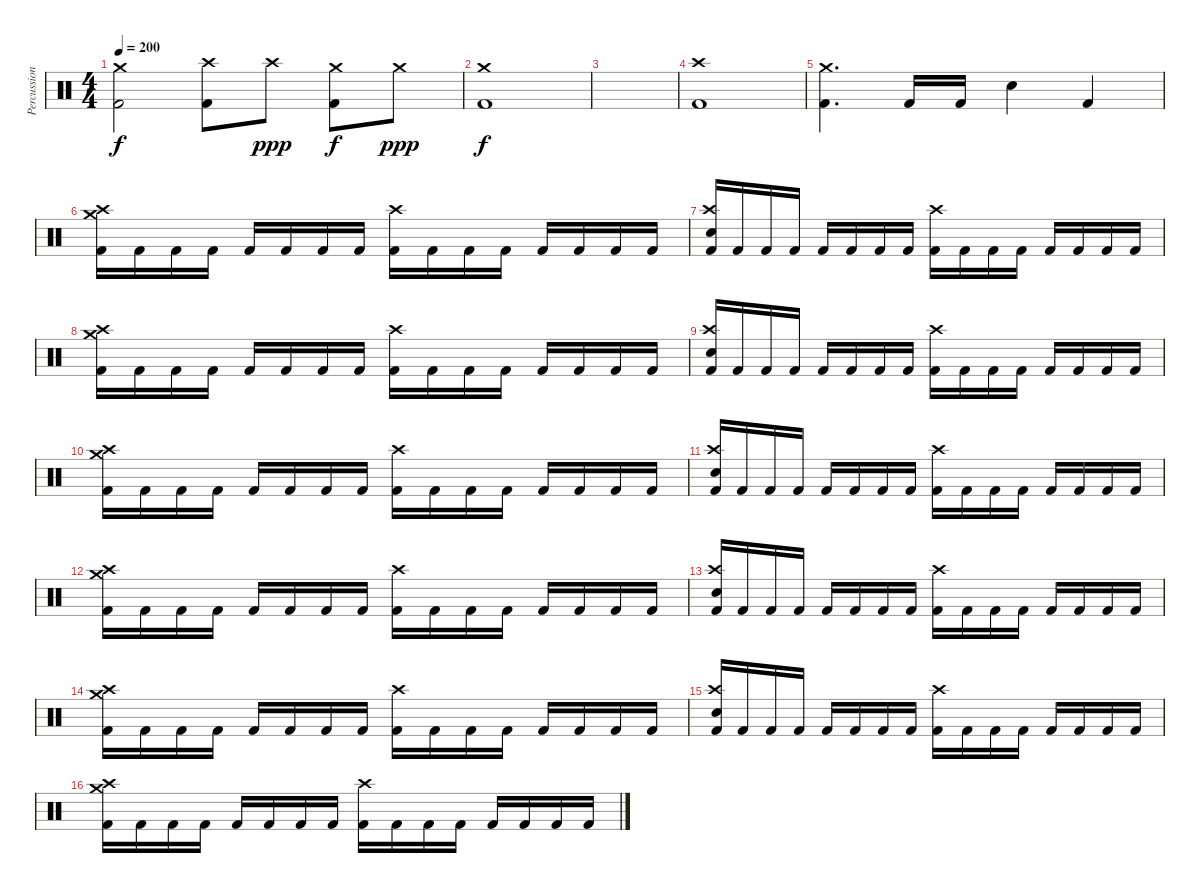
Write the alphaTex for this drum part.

\track ("Percussion" "Percussion") {instrument percussion}
\staff {score}
\articulation defaults
\ts (4 4)
\tempo 200
\clef neutral
\ks c
("Crash medium (hit)" "Kick (hit) 2").2{dy f} ("Crash high (hit)" "Kick (hit) 2").8 "Crash high (hit)".8{dy ppp} ("Crash medium (hit)" "Kick (hit) 2").8{dy f} "Crash medium (hit)".8{dy ppp} |
("Crash medium (hit)" "Kick (hit) 2").1{dy f} |
|
("Crash high (hit)" "Kick (hit) 2").1 |
("Crash medium (hit)" "Kick (hit) 2").4{d} "Kick (hit) 2".16 "Kick (hit) 2".16 "Electric Snare (hit)".4 "Kick (hit) 2".4 |
("Crash medium (hit)" "Crash high (hit)" "Kick (hit) 2").16 "Kick (hit) 2".16 "Kick (hit) 2".16 "Kick (hit) 2".16 "Kick (hit) 2".16 "Kick (hit) 2".16 "Kick (hit) 2".16 "Kick (hit) 2".16 ("Crash high (hit)" "Kick (hit) 2").16 "Kick (hit) 2".16 "Kick (hit) 2".16 "Kick (hit) 2".16 "Kick (hit) 2".16 "Kick (hit) 2".16 "Kick (hit) 2".16 "Kick (hit) 2".16 |
("Crash high (hit)" "Electric Snare (hit)" "Kick (hit) 2").16 "Kick (hit) 2".16 "Kick (hit) 2".16 "Kick (hit) 2".16 "Kick (hit) 2".16 "Kick (hit) 2".16 "Kick (hit) 2".16 "Kick (hit) 2".16 ("Crash high (hit)" "Kick (hit) 2").16 "Kick (hit) 2".16 "Kick (hit) 2".16 "Kick (hit) 2".16 "Kick (hit) 2".16 "Kick (hit) 2".16 "Kick (hit) 2".16 "Kick (hit) 2".16 |
("Crash medium (hit)" "Crash high (hit)" "Kick (hit) 2").16 "Kick (hit) 2".16 "Kick (hit) 2".16 "Kick (hit) 2".16 "Kick (hit) 2".16 "Kick (hit) 2".16 "Kick (hit) 2".16 "Kick (hit) 2".16 ("Crash high (hit)" "Kick (hit) 2").16 "Kick (hit) 2".16 "Kick (hit) 2".16 "Kick (hit) 2".16 "Kick (hit) 2".16 "Kick (hit) 2".16 "Kick (hit) 2".16 "Kick (hit) 2".16 |
("Crash high (hit)" "Electric Snare (hit)" "Kick (hit) 2").16 "Kick (hit) 2".16 "Kick (hit) 2".16 "Kick (hit) 2".16 "Kick (hit) 2".16 "Kick (hit) 2".16 "Kick (hit) 2".16 "Kick (hit) 2".16 ("Crash high (hit)" "Kick (hit) 2").16 "Kick (hit) 2".16 "Kick (hit) 2".16 "Kick (hit) 2".16 "Kick (hit) 2".16 "Kick (hit) 2".16 "Kick (hit) 2".16 "Kick (hit) 2".16 |
("Crash medium (hit)" "Crash high (hit)" "Kick (hit) 2").16 "Kick (hit) 2".16 "Kick (hit) 2".16 "Kick (hit) 2".16 "Kick (hit) 2".16 "Kick (hit) 2".16 "Kick (hit) 2".16 "Kick (hit) 2".16 ("Crash high (hit)" "Kick (hit) 2").16 "Kick (hit) 2".16 "Kick (hit) 2".16 "Kick (hit) 2".16 "Kick (hit) 2".16 "Kick (hit) 2".16 "Kick (hit) 2".16 "Kick (hit) 2".16 |
("Crash high (hit)" "Electric Snare (hit)" "Kick (hit) 2").16 "Kick (hit) 2".16 "Kick (hit) 2".16 "Kick (hit) 2".16 "Kick (hit) 2".16 "Kick (hit) 2".16 "Kick (hit) 2".16 "Kick (hit) 2".16 ("Crash high (hit)" "Kick (hit) 2").16 "Kick (hit) 2".16 "Kick (hit) 2".16 "Kick (hit) 2".16 "Kick (hit) 2".16 "Kick (hit) 2".16 "Kick (hit) 2".16 "Kick (hit) 2".16 |
("Crash medium (hit)" "Crash high (hit)" "Kick (hit) 2").16 "Kick (hit) 2".16 "Kick (hit) 2".16 "Kick (hit) 2".16 "Kick (hit) 2".16 "Kick (hit) 2".16 "Kick (hit) 2".16 "Kick (hit) 2".16 ("Crash high (hit)" "Kick (hit) 2").16 "Kick (hit) 2".16 "Kick (hit) 2".16 "Kick (hit) 2".16 "Kick (hit) 2".16 "Kick (hit) 2".16 "Kick (hit) 2".16 "Kick (hit) 2".16 |
("Crash high (hit)" "Electric Snare (hit)" "Kick (hit) 2").16 "Kick (hit) 2".16 "Kick (hit) 2".16 "Kick (hit) 2".16 "Kick (hit) 2".16 "Kick (hit) 2".16 "Kick (hit) 2".16 "Kick (hit) 2".16 ("Crash high (hit)" "Kick (hit) 2").16 "Kick (hit) 2".16 "Kick (hit) 2".16 "Kick (hit) 2".16 "Kick (hit) 2".16 "Kick (hit) 2".16 "Kick (hit) 2".16 "Kick (hit) 2".16 |
("Crash medium (hit)" "Crash high (hit)" "Kick (hit) 2").16 "Kick (hit) 2".16 "Kick (hit) 2".16 "Kick (hit) 2".16 "Kick (hit) 2".16 "Kick (hit) 2".16 "Kick (hit) 2".16 "Kick (hit) 2".16 ("Crash high (hit)" "Kick (hit) 2").16 "Kick (hit) 2".16 "Kick (hit) 2".16 "Kick (hit) 2".16 "Kick (hit) 2".16 "Kick (hit) 2".16 "Kick (hit) 2".16 "Kick (hit) 2".16 |
("Crash high (hit)" "Electric Snare (hit)" "Kick (hit) 2").16 "Kick (hit) 2".16 "Kick (hit) 2".16 "Kick (hit) 2".16 "Kick (hit) 2".16 "Kick (hit) 2".16 "Kick (hit) 2".16 "Kick (hit) 2".16 ("Crash high (hit)" "Kick (hit) 2").16 "Kick (hit) 2".16 "Kick (hit) 2".16 "Kick (hit) 2".16 "Kick (hit) 2".16 "Kick (hit) 2".16 "Kick (hit) 2".16 "Kick (hit) 2".16 |
("Crash medium (hit)" "Crash high (hit)" "Kick (hit) 2").16 "Kick (hit) 2".16 "Kick (hit) 2".16 "Kick (hit) 2".16 "Kick (hit) 2".16 "Kick (hit) 2".16 "Kick (hit) 2".16 "Kick (hit) 2".16 ("Crash high (hit)" "Kick (hit) 2").16 "Kick (hit) 2".16 "Kick (hit) 2".16 "Kick (hit) 2".16 "Kick (hit) 2".16 "Kick (hit) 2".16 "Kick (hit) 2".16 "Kick (hit) 2".16
